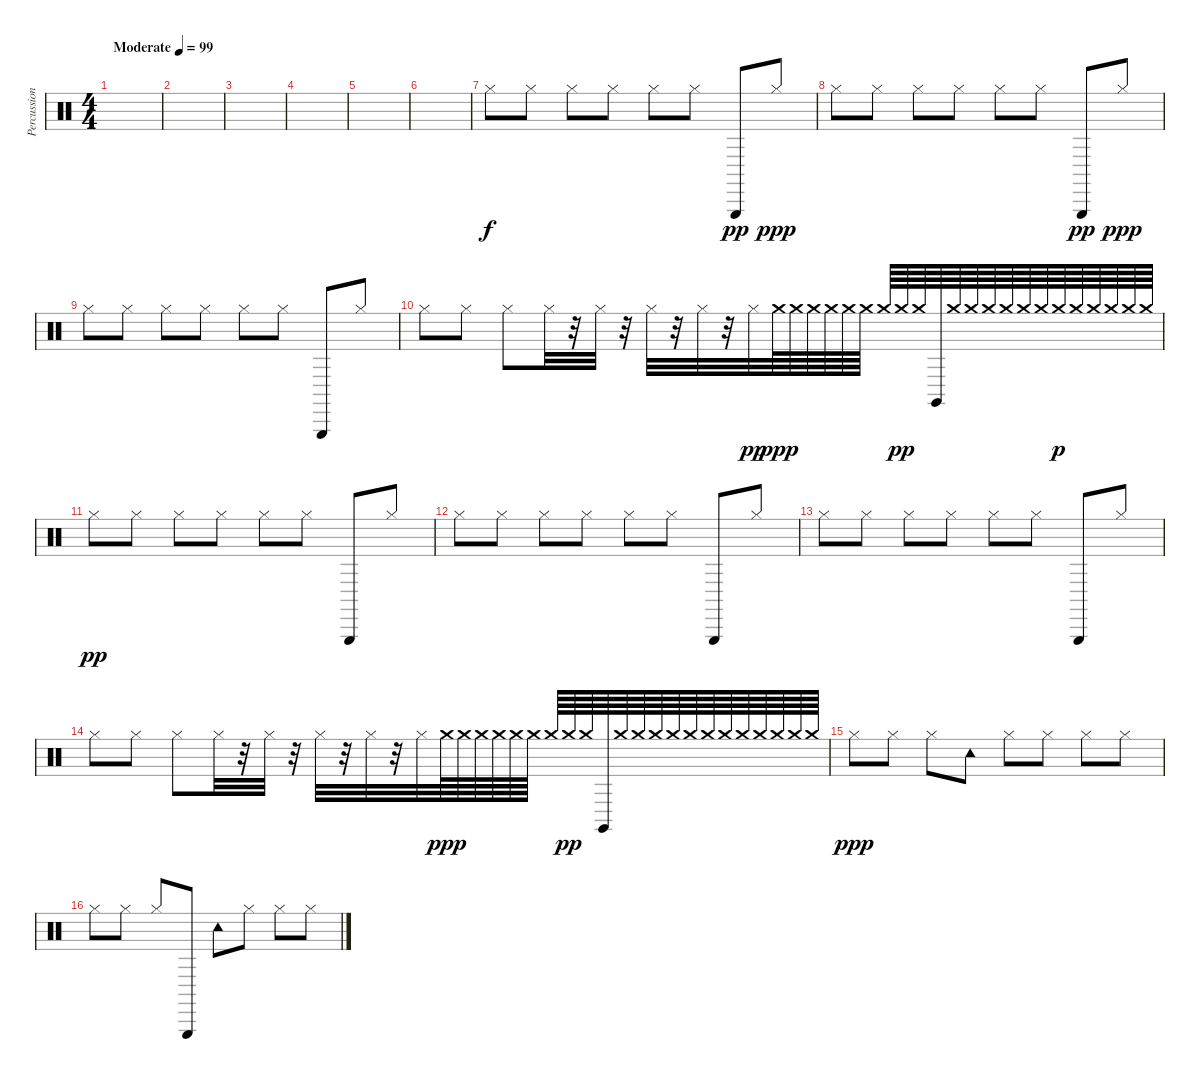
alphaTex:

\track ("Percussion" "Percussion") {instrument percussion}
\staff {score}
\articulation defaults
\ts (4 4)
\tempo (99 "Moderate")
\clef neutral
\ks c
|
|
|
|
|
|
"Hi-Hat (closed)".8 "Hi-Hat (closed)".8 "Hi-Hat (closed)".8 "Hi-Hat (closed)".8 "Hi-Hat (closed)".8 "Hi-Hat (closed)".8 "Triangle (hit)".8{dy pp} "Hi-Hat (closed)".8{dy ppp} |
"Hi-Hat (closed)".8 "Hi-Hat (closed)".8 "Hi-Hat (closed)".8 "Hi-Hat (closed)".8 "Hi-Hat (closed)".8 "Hi-Hat (closed)".8 "Triangle (hit)".8{dy pp} "Hi-Hat (closed)".8{dy ppp} |
"Hi-Hat (closed)".8 "Hi-Hat (closed)".8 "Hi-Hat (closed)".8 "Hi-Hat (closed)".8 "Hi-Hat (closed)".8 "Hi-Hat (closed)".8 "Triangle (hit)".8 "Hi-Hat (closed)".8 |
"Hi-Hat (closed)".8 "Hi-Hat (closed)".8 "Hi-Hat (closed)".8 "Hi-Hat (closed)".32 r.32 "Hi-Hat (closed)".32 r.32 "Hi-Hat (closed)".32 r.32 "Hi-Hat (closed)".32 r.32 "Hi-Hat (closed)".32{dy pp} "Crash medium (hit)".64{dy ppp} "Crash medium (hit)".64 "Crash medium (hit)".64 "Crash medium (hit)".64 "Crash medium (hit)".64 "Crash medium (hit)".64 "Crash medium (hit)".64 "Crash medium (hit)".64{dy pp} "Crash medium (hit)".64 "Claves (hit)".64 "Crash medium (hit)".64 "Crash medium (hit)".64 "Crash medium (hit)".64 "Crash medium (hit)".64 "Crash medium (hit)".64 "Crash medium (hit)".64 "Crash medium (hit)".64{dy p} "Crash medium (hit)".64 "Crash medium (hit)".64 "Crash medium (hit)".64 "Crash medium (hit)".64 "Crash medium (hit)".64 |
"Hi-Hat (closed)".8{dy pp} "Hi-Hat (closed)".8 "Hi-Hat (closed)".8 "Hi-Hat (closed)".8 "Hi-Hat (closed)".8 "Hi-Hat (closed)".8 "Triangle (hit)".8 "Hi-Hat (closed)".8 |
"Hi-Hat (closed)".8 "Hi-Hat (closed)".8 "Hi-Hat (closed)".8 "Hi-Hat (closed)".8 "Hi-Hat (closed)".8 "Hi-Hat (closed)".8 "Triangle (hit)".8 "Hi-Hat (closed)".8 |
"Hi-Hat (closed)".8 "Hi-Hat (closed)".8 "Hi-Hat (closed)".8 "Hi-Hat (closed)".8 "Hi-Hat (closed)".8 "Hi-Hat (closed)".8 "Triangle (hit)".8 "Hi-Hat (closed)".8 |
"Hi-Hat (closed)".8 "Hi-Hat (closed)".8 "Hi-Hat (closed)".8 "Hi-Hat (closed)".32 r.32 "Hi-Hat (closed)".32 r.32 "Hi-Hat (closed)".32 r.32 "Hi-Hat (closed)".32 r.32 "Hi-Hat (closed)".32 "Crash medium (hit)".64{dy ppp} "Crash medium (hit)".64 "Crash medium (hit)".64 "Crash medium (hit)".64 "Crash medium (hit)".64 "Crash medium (hit)".64 "Crash medium (hit)".64 "Crash medium (hit)".64{dy pp} "Crash medium (hit)".64 "Claves (hit)".64 "Crash medium (hit)".64 "Crash medium (hit)".64 "Crash medium (hit)".64 "Crash medium (hit)".64 "Crash medium (hit)".64 "Crash medium (hit)".64 "Crash medium (hit)".64 "Crash medium (hit)".64 "Crash medium (hit)".64 "Crash medium (hit)".64 "Crash medium (hit)".64 "Crash medium (hit)".64 |
"Hi-Hat (closed)".8{dy ppp} "Hi-Hat (closed)".8 "Hi-Hat (closed)".8 "Tambourine (hit)".8 "Hi-Hat (closed)".8 "Hi-Hat (closed)".8 "Hi-Hat (closed)".8 "Hi-Hat (closed)".8 |
"Hi-Hat (closed)".8 "Hi-Hat (closed)".8 "Hi-Hat (closed)".8 "Triangle (hit)".8 "Tambourine (hit)".8 "Hi-Hat (closed)".8 "Hi-Hat (closed)".8 "Hi-Hat (closed)".8
